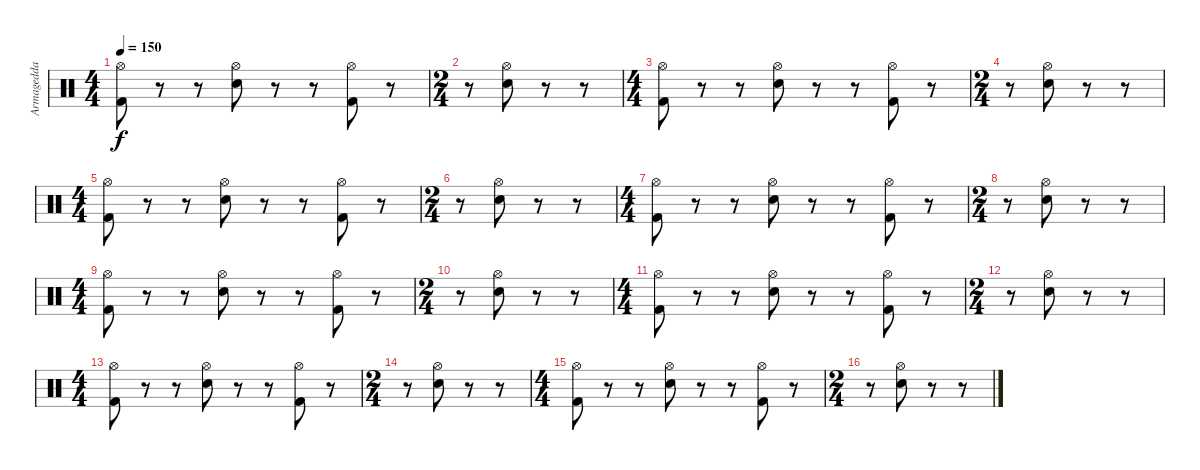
\track ("Armagedda" "Armagedda") {instrument percussion}
\staff {score}
\articulation defaults
\ts (4 4)
\tempo 150
\clef neutral
\ks c
("Hi-Hat (open)" "Kick (hit) 2").8{dy f} r.8 r.8 ("Hi-Hat (open)" "Electric Snare (hit)").8 r.8 r.8 ("Hi-Hat (open)" "Kick (hit) 2").8 r.8 |
\ts (2 4)
r.8 ("Hi-Hat (open)" "Electric Snare (hit)").8 r.8 r.8 |
\ts (4 4)
("Hi-Hat (open)" "Kick (hit) 2").8 r.8 r.8 ("Hi-Hat (open)" "Electric Snare (hit)").8 r.8 r.8 ("Hi-Hat (open)" "Kick (hit) 2").8 r.8 |
\ts (2 4)
r.8 ("Hi-Hat (open)" "Electric Snare (hit)").8 r.8 r.8 |
\ts (4 4)
("Hi-Hat (open)" "Kick (hit) 2").8 r.8 r.8 ("Hi-Hat (open)" "Electric Snare (hit)").8 r.8 r.8 ("Hi-Hat (open)" "Kick (hit) 2").8 r.8 |
\ts (2 4)
r.8 ("Hi-Hat (open)" "Electric Snare (hit)").8 r.8 r.8 |
\ts (4 4)
("Hi-Hat (open)" "Kick (hit) 2").8 r.8 r.8 ("Hi-Hat (open)" "Electric Snare (hit)").8 r.8 r.8 ("Hi-Hat (open)" "Kick (hit) 2").8 r.8 |
\ts (2 4)
r.8 ("Hi-Hat (open)" "Electric Snare (hit)").8 r.8 r.8 |
\ts (4 4)
("Hi-Hat (open)" "Kick (hit) 2").8 r.8 r.8 ("Hi-Hat (open)" "Electric Snare (hit)").8 r.8 r.8 ("Hi-Hat (open)" "Kick (hit) 2").8 r.8 |
\ts (2 4)
r.8 ("Hi-Hat (open)" "Electric Snare (hit)").8 r.8 r.8 |
\ts (4 4)
("Hi-Hat (open)" "Kick (hit) 2").8 r.8 r.8 ("Hi-Hat (open)" "Electric Snare (hit)").8 r.8 r.8 ("Hi-Hat (open)" "Kick (hit) 2").8 r.8 |
\ts (2 4)
r.8 ("Hi-Hat (open)" "Electric Snare (hit)").8 r.8 r.8 |
\ts (4 4)
("Hi-Hat (open)" "Kick (hit) 2").8 r.8 r.8 ("Hi-Hat (open)" "Electric Snare (hit)").8 r.8 r.8 ("Hi-Hat (open)" "Kick (hit) 2").8 r.8 |
\ts (2 4)
r.8 ("Hi-Hat (open)" "Electric Snare (hit)").8 r.8 r.8 |
\ts (4 4)
("Hi-Hat (open)" "Kick (hit) 2").8 r.8 r.8 ("Hi-Hat (open)" "Electric Snare (hit)").8 r.8 r.8 ("Hi-Hat (open)" "Kick (hit) 2").8 r.8 |
\ts (2 4)
r.8 ("Hi-Hat (open)" "Electric Snare (hit)").8 r.8 r.8
